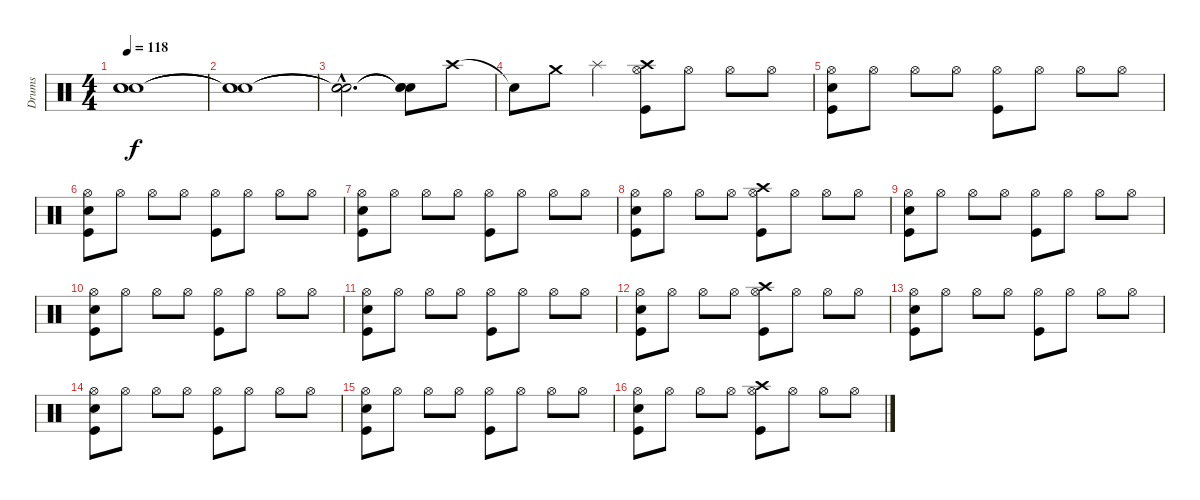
\track ("Drums" "Drums") {instrument percussion}
\staff {score}
\articulation defaults
\ts (4 4)
\tempo 118
\clef neutral
\ks c
("Snare (hit)"{t} "Snare (hit)"{t} "Snare (hit)"{t}).1{dy f} |
("Snare (hit)"{t} "Snare (hit)"{t} "Snare (hit)"{t}).1 |
("Snare (hit)"{hac t} "Snare (hit)"{hac t} "Snare (hit)"{hac t}).2{d} ("Snare (hit)"{t} "Snare (hit)"{t} "Snare (hit)"{t}).8 "Crash high (hit)".8 |
"Snare (hit)"{t}.8 "Crash medium (hit)".8 "Splash (hit)".4 ("Kick (hit)" "Hi-Hat (open)" "Crash high (hit)").8 "Hi-Hat (open)".8 "Hi-Hat (open)".8 "Hi-Hat (open)".8 |
("Kick (hit)" "Snare (hit) 2" "Hi-Hat (open)").8 "Hi-Hat (open)".8 "Hi-Hat (open)".8 "Hi-Hat (open)".8 ("Kick (hit)" "Hi-Hat (open)").8 "Hi-Hat (open)".8 "Hi-Hat (open)".8 "Hi-Hat (open)".8 |
("Kick (hit)" "Snare (hit) 2" "Hi-Hat (open)").8 "Hi-Hat (open)".8 "Hi-Hat (open)".8 "Hi-Hat (open)".8 ("Kick (hit)" "Hi-Hat (open)").8 "Hi-Hat (open)".8 "Hi-Hat (open)".8 "Hi-Hat (open)".8 |
("Kick (hit)" "Snare (hit) 2" "Hi-Hat (open)").8 "Hi-Hat (open)".8 "Hi-Hat (open)".8 "Hi-Hat (open)".8 ("Kick (hit)" "Hi-Hat (open)").8 "Hi-Hat (open)".8 "Hi-Hat (open)".8 "Hi-Hat (open)".8 |
("Kick (hit)" "Snare (hit) 2" "Hi-Hat (open)").8 "Hi-Hat (open)".8 "Hi-Hat (open)".8 "Hi-Hat (open)".8 ("Kick (hit)" "Hi-Hat (open)" "Crash high (hit)").8 "Hi-Hat (open)".8 "Hi-Hat (open)".8 "Hi-Hat (open)".8 |
("Kick (hit)" "Snare (hit) 2" "Hi-Hat (open)").8 "Hi-Hat (open)".8 "Hi-Hat (open)".8 "Hi-Hat (open)".8 ("Kick (hit)" "Hi-Hat (open)").8 "Hi-Hat (open)".8 "Hi-Hat (open)".8 "Hi-Hat (open)".8 |
("Kick (hit)" "Snare (hit) 2" "Hi-Hat (open)").8 "Hi-Hat (open)".8 "Hi-Hat (open)".8 "Hi-Hat (open)".8 ("Kick (hit)" "Hi-Hat (open)").8 "Hi-Hat (open)".8 "Hi-Hat (open)".8 "Hi-Hat (open)".8 |
("Kick (hit)" "Snare (hit) 2" "Hi-Hat (open)").8 "Hi-Hat (open)".8 "Hi-Hat (open)".8 "Hi-Hat (open)".8 ("Kick (hit)" "Hi-Hat (open)").8 "Hi-Hat (open)".8 "Hi-Hat (open)".8 "Hi-Hat (open)".8 |
("Kick (hit)" "Snare (hit) 2" "Hi-Hat (open)").8 "Hi-Hat (open)".8 "Hi-Hat (open)".8 "Hi-Hat (open)".8 ("Kick (hit)" "Hi-Hat (open)" "Crash high (hit)").8 "Hi-Hat (open)".8 "Hi-Hat (open)".8 "Hi-Hat (open)".8 |
("Kick (hit)" "Snare (hit) 2" "Hi-Hat (open)").8 "Hi-Hat (open)".8 "Hi-Hat (open)".8 "Hi-Hat (open)".8 ("Kick (hit)" "Hi-Hat (open)").8 "Hi-Hat (open)".8 "Hi-Hat (open)".8 "Hi-Hat (open)".8 |
("Kick (hit)" "Snare (hit) 2" "Hi-Hat (open)").8 "Hi-Hat (open)".8 "Hi-Hat (open)".8 "Hi-Hat (open)".8 ("Kick (hit)" "Hi-Hat (open)").8 "Hi-Hat (open)".8 "Hi-Hat (open)".8 "Hi-Hat (open)".8 |
("Kick (hit)" "Snare (hit) 2" "Hi-Hat (open)").8 "Hi-Hat (open)".8 "Hi-Hat (open)".8 "Hi-Hat (open)".8 ("Kick (hit)" "Hi-Hat (open)").8 "Hi-Hat (open)".8 "Hi-Hat (open)".8 "Hi-Hat (open)".8 |
("Kick (hit)" "Snare (hit) 2" "Hi-Hat (open)").8 "Hi-Hat (open)".8 "Hi-Hat (open)".8 "Hi-Hat (open)".8 ("Kick (hit)" "Hi-Hat (open)" "Crash high (hit)").8 "Hi-Hat (open)".8 "Hi-Hat (open)".8 "Hi-Hat (open)".8
